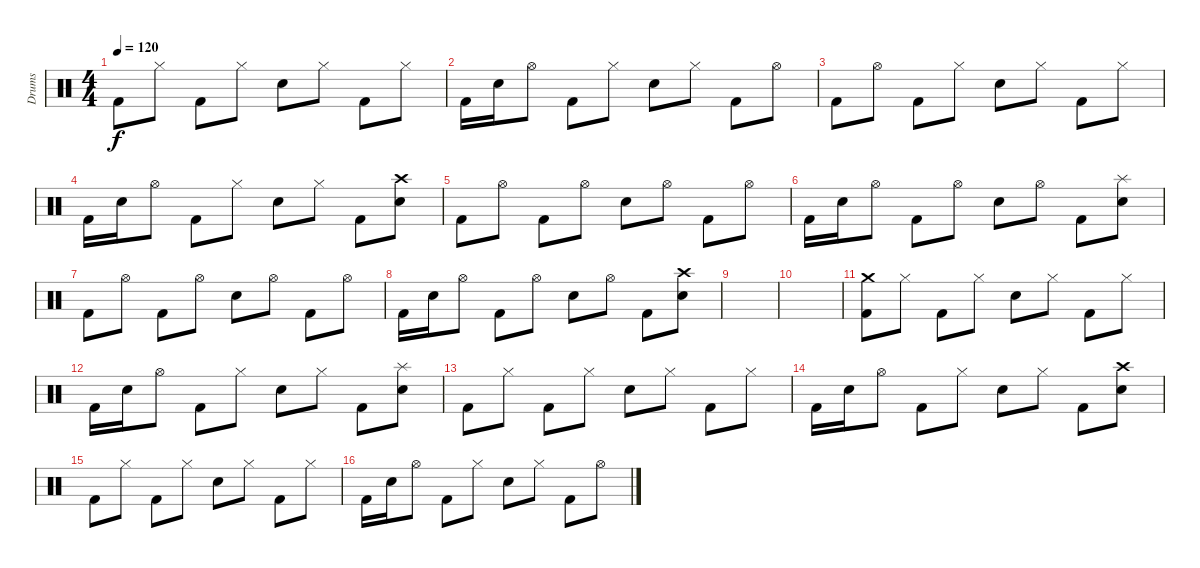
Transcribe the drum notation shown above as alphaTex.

\track ("Drums" "Drums") {instrument percussion}
\staff {score}
\articulation defaults
\ts (4 4)
\tempo 120
\clef neutral
\ks c "Kick (hit) 2".8{dy f} "Hi-Hat (closed)".8 "Kick (hit) 2".8 "Hi-Hat (closed)".8 "Snare (hit) 2".8 "Hi-Hat (closed)".8 "Kick (hit) 2".8 "Hi-Hat (closed)".8
|
"Kick (hit) 2".16 "Snare (hit) 2".16 "Hi-Hat (open)".8 "Kick (hit) 2".8 "Hi-Hat (closed)".8 "Snare (hit) 2".8 "Hi-Hat (closed)".8 "Kick (hit) 2".8 "Hi-Hat (open)".8 |
"Kick (hit) 2".8 "Hi-Hat (open)".8 "Kick (hit) 2".8 "Hi-Hat (closed)".8 "Snare (hit) 2".8 "Hi-Hat (closed)".8 "Kick (hit) 2".8 "Hi-Hat (closed)".8 |
"Kick (hit) 2".16 "Snare (hit) 2".16 "Hi-Hat (open)".8 "Kick (hit) 2".8 "Hi-Hat (closed)".8 "Snare (hit) 2".8 "Hi-Hat (closed)".8 "Kick (hit) 2".8 ("Crash high (hit)" "Snare (hit) 2").8 |
"Kick (hit) 2".8 "Hi-Hat (open)".8 "Kick (hit) 2".8 "Hi-Hat (open)".8 "Snare (hit) 2".8 "Hi-Hat (open)".8 "Kick (hit) 2".8 "Hi-Hat (open)".8 |
"Kick (hit) 2".16 "Snare (hit) 2".16 "Hi-Hat (open)".8 "Kick (hit) 2".8 "Hi-Hat (open)".8 "Snare (hit) 2".8 "Hi-Hat (open)".8 "Kick (hit) 2".8 ("Splash (hit)" "Snare (hit) 2").8 |
"Kick (hit) 2".8 "Hi-Hat (open)".8 "Kick (hit) 2".8 "Hi-Hat (open)".8 "Snare (hit) 2".8 "Hi-Hat (open)".8 "Kick (hit) 2".8 "Hi-Hat (open)".8 |
"Kick (hit) 2".16 "Snare (hit) 2".16 "Hi-Hat (open)".8 "Kick (hit) 2".8 "Hi-Hat (open)".8 "Snare (hit) 2".8 "Hi-Hat (open)".8 "Kick (hit) 2".8 ("Crash high (hit)" "Snare (hit) 2").8 |
|
|
("Crash medium (hit)" "Kick (hit) 2").8 "Hi-Hat (closed)".8 "Kick (hit) 2".8 "Hi-Hat (closed)".8 "Snare (hit) 2".8 "Hi-Hat (closed)".8 "Kick (hit) 2".8 "Hi-Hat (closed)".8 |
"Kick (hit) 2".16 "Snare (hit) 2".16 "Hi-Hat (open)".8 "Kick (hit) 2".8 "Hi-Hat (closed)".8 "Snare (hit) 2".8 "Hi-Hat (closed)".8 "Kick (hit) 2".8 ("Splash (hit)" "Snare (hit) 2").8 |
"Kick (hit) 2".8 "Hi-Hat (closed)".8 "Kick (hit) 2".8 "Hi-Hat (closed)".8 "Snare (hit) 2".8 "Hi-Hat (closed)".8 "Kick (hit) 2".8 "Hi-Hat (closed)".8 |
"Kick (hit) 2".16 "Snare (hit) 2".16 "Hi-Hat (open)".8 "Kick (hit) 2".8 "Hi-Hat (closed)".8 "Snare (hit) 2".8 "Hi-Hat (closed)".8 "Kick (hit) 2".8 ("Crash high (hit)" "Snare (hit) 2").8 |
"Kick (hit) 2".8 "Hi-Hat (closed)".8 "Kick (hit) 2".8 "Hi-Hat (closed)".8 "Snare (hit) 2".8 "Hi-Hat (closed)".8 "Kick (hit) 2".8 "Hi-Hat (closed)".8 |
"Kick (hit) 2".16 "Snare (hit) 2".16 "Hi-Hat (open)".8 "Kick (hit) 2".8 "Hi-Hat (closed)".8 "Snare (hit) 2".8 "Hi-Hat (closed)".8 "Kick (hit) 2".8 "Hi-Hat (open)".8
